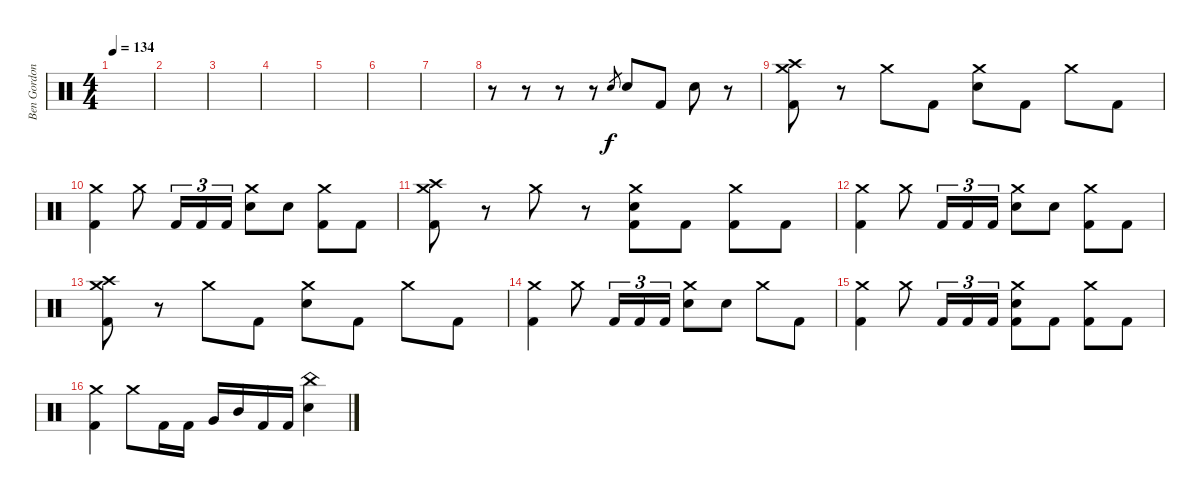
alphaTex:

\track ("Ben Gordon" "Ben Gordon") {instrument percussion}
\staff {score}
\articulation defaults
\ts (4 4)
\tempo 134
\clef neutral
\ks c
|
|
|
|
|
|
|
r.8 r.8 r.8 r.8 "Electric Snare (hit)".8{gr} "Electric Snare (hit)".8 "Kick (hit) 2".8 "Electric Snare (hit)".8 r.8 |
("Crash medium (hit)" "Crash high (hit)" "Kick (hit) 2").8 r.8 "Crash medium (hit)".8 "Kick (hit) 2".8 ("Crash medium (hit)" "Electric Snare (hit)").8 "Kick (hit) 2".8 "Crash medium (hit)".8 "Kick (hit) 2".8 |
("Crash medium (hit)" "Kick (hit) 2").4 "Crash medium (hit)".8 "Kick (hit) 2".16{tu (3 2)} "Kick (hit) 2".16{tu (3 2)} "Kick (hit) 2".16{tu (3 2)} ("Crash medium (hit)" "Electric Snare (hit)").8 "Electric Snare (hit)".8 ("Crash medium (hit)" "Kick (hit) 2").8 "Kick (hit) 2".8 |
("Crash medium (hit)" "Crash high (hit)" "Kick (hit) 2").8 r.8 "Crash medium (hit)".8 r.8 ("Crash medium (hit)" "Electric Snare (hit)" "Kick (hit) 2").8 "Kick (hit) 2".8 ("Crash medium (hit)" "Kick (hit) 2").8 "Kick (hit) 2".8 |
("Crash medium (hit)" "Kick (hit) 2").4 "Crash medium (hit)".8 "Kick (hit) 2".16{tu (3 2)} "Kick (hit) 2".16{tu (3 2)} "Kick (hit) 2".16{tu (3 2)} ("Crash medium (hit)" "Electric Snare (hit)").8 "Electric Snare (hit)".8 ("Crash medium (hit)" "Kick (hit) 2").8 "Kick (hit) 2".8 |
("Crash medium (hit)" "Crash high (hit)" "Kick (hit) 2").8 r.8 "Crash medium (hit)".8 "Kick (hit) 2".8 ("Crash medium (hit)" "Electric Snare (hit)").8 "Kick (hit) 2".8 "Crash medium (hit)".8 "Kick (hit) 2".8 |
("Crash medium (hit)" "Kick (hit) 2").4 "Crash medium (hit)".8 "Kick (hit) 2".16{tu (3 2)} "Kick (hit) 2".16{tu (3 2)} "Kick (hit) 2".16{tu (3 2)} ("Crash medium (hit)" "Electric Snare (hit)").8 "Electric Snare (hit)".8 "Crash medium (hit)".8 "Kick (hit) 2".8 |
("Crash medium (hit)" "Kick (hit) 2").4 "Crash medium (hit)".8 "Kick (hit) 2".16{tu (3 2)} "Kick (hit) 2".16{tu (3 2)} "Kick (hit) 2".16{tu (3 2)} ("Crash medium (hit)" "Electric Snare (hit)" "Kick (hit) 2").8 "Kick (hit) 2".8 ("Crash medium (hit)" "Kick (hit) 2").8 "Kick (hit) 2".8 |
("Crash medium (hit)" "Kick (hit) 2").4 "Crash medium (hit)".8 "Kick (hit) 2".16 "Kick (hit) 2".16 "Very Low Tom (hit)".16 "Mid Tom (hit)".16 "Kick (hit) 2".16 "Kick (hit) 2".16 ("China (hit)" "Electric Snare (hit)").4
